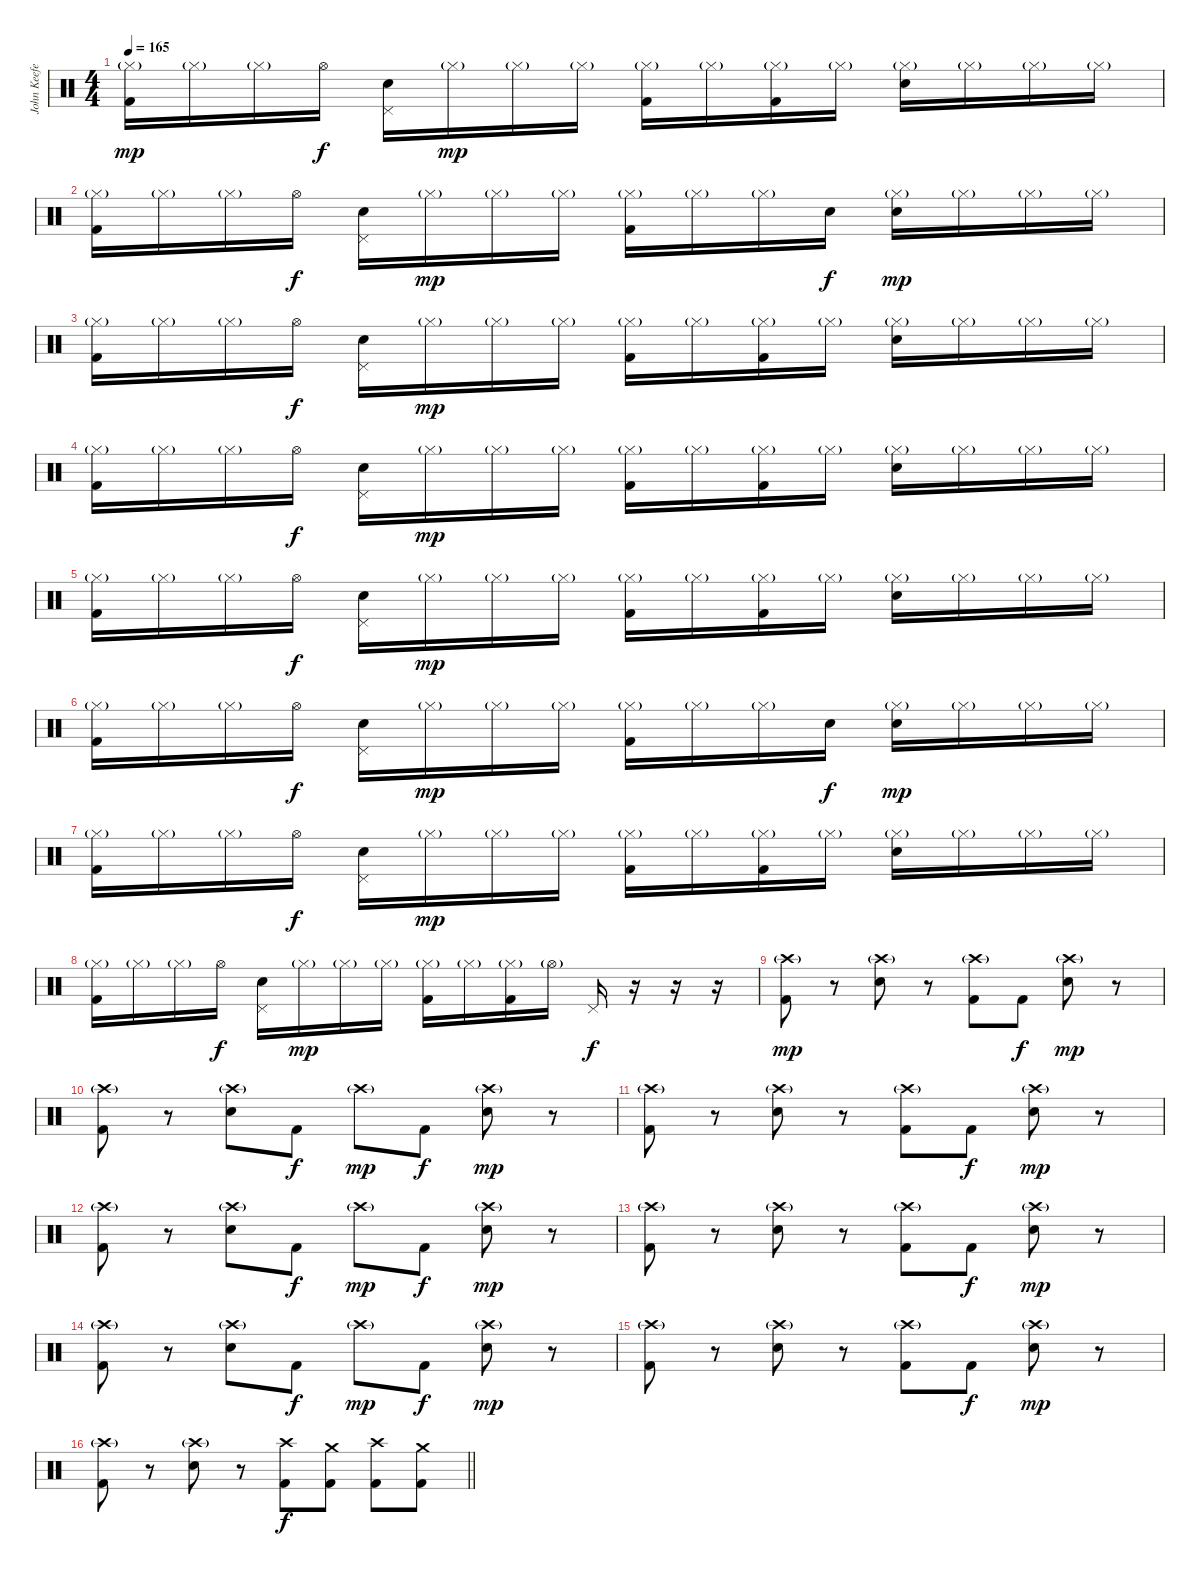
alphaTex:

\track ("John Keefe (Percussion)" "John Keefe") {instrument percussion}
\staff {score}
\articulation defaults
\ts (4 4)
\tempo 165
\clef neutral
\ks c
("Hi-Hat (closed)"{g} "Kick (hit) 2").16{dy mp} "Hi-Hat (closed)"{g}.16 "Hi-Hat (closed)"{g}.16 "Hi-Hat (open)".16{dy f} ("Pedal Hi-Hat (hit)" "Electric Snare (hit)").16 "Hi-Hat (closed)"{g}.16{dy mp} "Hi-Hat (closed)"{g}.16 "Hi-Hat (closed)"{g}.16 ("Hi-Hat (closed)"{g} "Kick (hit) 2").16 "Hi-Hat (closed)"{g}.16 ("Hi-Hat (closed)"{g} "Kick (hit) 2").16 "Hi-Hat (closed)"{g}.16 ("Hi-Hat (closed)"{g} "Electric Snare (hit)").16 "Hi-Hat (closed)"{g}.16 "Hi-Hat (closed)"{g}.16 "Hi-Hat (closed)"{g}.16 |
("Hi-Hat (closed)"{g} "Kick (hit) 2").16 "Hi-Hat (closed)"{g}.16 "Hi-Hat (closed)"{g}.16 "Hi-Hat (open)".16{dy f} ("Pedal Hi-Hat (hit)" "Electric Snare (hit)").16 "Hi-Hat (closed)"{g}.16{dy mp} "Hi-Hat (closed)"{g}.16 "Hi-Hat (closed)"{g}.16 ("Hi-Hat (closed)"{g} "Kick (hit) 2").16 "Hi-Hat (closed)"{g}.16 "Hi-Hat (closed)"{g}.16 "Electric Snare (hit)".16{dy f} ("Hi-Hat (closed)"{g} "Electric Snare (hit)").16{dy mp} "Hi-Hat (closed)"{g}.16 "Hi-Hat (closed)"{g}.16 "Hi-Hat (closed)"{g}.16 |
("Hi-Hat (closed)"{g} "Kick (hit) 2").16 "Hi-Hat (closed)"{g}.16 "Hi-Hat (closed)"{g}.16 "Hi-Hat (open)".16{dy f} ("Pedal Hi-Hat (hit)" "Electric Snare (hit)").16 "Hi-Hat (closed)"{g}.16{dy mp} "Hi-Hat (closed)"{g}.16 "Hi-Hat (closed)"{g}.16 ("Hi-Hat (closed)"{g} "Kick (hit) 2").16 "Hi-Hat (closed)"{g}.16 ("Hi-Hat (closed)"{g} "Kick (hit) 2").16 "Hi-Hat (closed)"{g}.16 ("Hi-Hat (closed)"{g} "Electric Snare (hit)").16 "Hi-Hat (closed)"{g}.16 "Hi-Hat (closed)"{g}.16 "Hi-Hat (closed)"{g}.16 |
("Hi-Hat (closed)"{g} "Kick (hit) 2").16 "Hi-Hat (closed)"{g}.16 "Hi-Hat (closed)"{g}.16 "Hi-Hat (open)".16{dy f} ("Pedal Hi-Hat (hit)" "Electric Snare (hit)").16 "Hi-Hat (closed)"{g}.16{dy mp} "Hi-Hat (closed)"{g}.16 "Hi-Hat (closed)"{g}.16 ("Hi-Hat (closed)"{g} "Kick (hit) 2").16 "Hi-Hat (closed)"{g}.16 ("Hi-Hat (closed)"{g} "Kick (hit) 2").16 "Hi-Hat (closed)"{g}.16 ("Hi-Hat (closed)"{g} "Electric Snare (hit)").16 "Hi-Hat (closed)"{g}.16 "Hi-Hat (closed)"{g}.16 "Hi-Hat (closed)"{g}.16 |
("Hi-Hat (closed)"{g} "Kick (hit) 2").16 "Hi-Hat (closed)"{g}.16 "Hi-Hat (closed)"{g}.16 "Hi-Hat (open)".16{dy f} ("Pedal Hi-Hat (hit)" "Electric Snare (hit)").16 "Hi-Hat (closed)"{g}.16{dy mp} "Hi-Hat (closed)"{g}.16 "Hi-Hat (closed)"{g}.16 ("Hi-Hat (closed)"{g} "Kick (hit) 2").16 "Hi-Hat (closed)"{g}.16 ("Hi-Hat (closed)"{g} "Kick (hit) 2").16 "Hi-Hat (closed)"{g}.16 ("Hi-Hat (closed)"{g} "Electric Snare (hit)").16 "Hi-Hat (closed)"{g}.16 "Hi-Hat (closed)"{g}.16 "Hi-Hat (closed)"{g}.16 |
("Hi-Hat (closed)"{g} "Kick (hit) 2").16 "Hi-Hat (closed)"{g}.16 "Hi-Hat (closed)"{g}.16 "Hi-Hat (open)".16{dy f} ("Pedal Hi-Hat (hit)" "Electric Snare (hit)").16 "Hi-Hat (closed)"{g}.16{dy mp} "Hi-Hat (closed)"{g}.16 "Hi-Hat (closed)"{g}.16 ("Hi-Hat (closed)"{g} "Kick (hit) 2").16 "Hi-Hat (closed)"{g}.16 "Hi-Hat (closed)"{g}.16 "Electric Snare (hit)".16{dy f} ("Hi-Hat (closed)"{g} "Electric Snare (hit)").16{dy mp} "Hi-Hat (closed)"{g}.16 "Hi-Hat (closed)"{g}.16 "Hi-Hat (closed)"{g}.16 |
("Hi-Hat (closed)"{g} "Kick (hit) 2").16 "Hi-Hat (closed)"{g}.16 "Hi-Hat (closed)"{g}.16 "Hi-Hat (open)".16{dy f} ("Pedal Hi-Hat (hit)" "Electric Snare (hit)").16 "Hi-Hat (closed)"{g}.16{dy mp} "Hi-Hat (closed)"{g}.16 "Hi-Hat (closed)"{g}.16 ("Hi-Hat (closed)"{g} "Kick (hit) 2").16 "Hi-Hat (closed)"{g}.16 ("Hi-Hat (closed)"{g} "Kick (hit) 2").16 "Hi-Hat (closed)"{g}.16 ("Hi-Hat (closed)"{g} "Electric Snare (hit)").16 "Hi-Hat (closed)"{g}.16 "Hi-Hat (closed)"{g}.16 "Hi-Hat (closed)"{g}.16 |
("Hi-Hat (closed)"{g} "Kick (hit) 2").16 "Hi-Hat (closed)"{g}.16 "Hi-Hat (closed)"{g}.16 "Hi-Hat (open)".16{dy f} ("Pedal Hi-Hat (hit)" "Electric Snare (hit)").16 "Hi-Hat (closed)"{g}.16{dy mp} "Hi-Hat (closed)"{g}.16 "Hi-Hat (closed)"{g}.16 ("Hi-Hat (closed)"{g} "Kick (hit) 2").16 "Hi-Hat (closed)"{g}.16 ("Hi-Hat (closed)"{g} "Kick (hit) 2").16 "Hi-Hat (open)"{g}.16 "Pedal Hi-Hat (hit)".16{dy f} r.16 r.16 r.16 |
("Crash high (hit)"{g} "Kick (hit) 2").8{dy mp} r.8 ("Crash high (hit)"{g} "Electric Snare (hit)").8 r.8 ("Crash high (hit)"{g} "Kick (hit) 2").8 "Kick (hit) 2".8{dy f} ("Crash high (hit)"{g} "Electric Snare (hit)").8{dy mp} r.8 |
("Crash high (hit)"{g} "Kick (hit) 2").8 r.8 ("Crash high (hit)"{g} "Electric Snare (hit)").8 "Kick (hit) 2".8{dy f} "Crash high (hit)"{g}.8{dy mp} "Kick (hit) 2".8{dy f} ("Crash high (hit)"{g} "Electric Snare (hit)").8{dy mp} r.8 |
("Crash high (hit)"{g} "Kick (hit) 2").8 r.8 ("Crash high (hit)"{g} "Electric Snare (hit)").8 r.8 ("Crash high (hit)"{g} "Kick (hit) 2").8 "Kick (hit) 2".8{dy f} ("Crash high (hit)"{g} "Electric Snare (hit)").8{dy mp} r.8 |
("Crash high (hit)"{g} "Kick (hit) 2").8 r.8 ("Crash high (hit)"{g} "Electric Snare (hit)").8 "Kick (hit) 2".8{dy f} "Crash high (hit)"{g}.8{dy mp} "Kick (hit) 2".8{dy f} ("Crash high (hit)"{g} "Electric Snare (hit)").8{dy mp} r.8 |
("Crash high (hit)"{g} "Kick (hit) 2").8 r.8 ("Crash high (hit)"{g} "Electric Snare (hit)").8 r.8 ("Crash high (hit)"{g} "Kick (hit) 2").8 "Kick (hit) 2".8{dy f} ("Crash high (hit)"{g} "Electric Snare (hit)").8{dy mp} r.8 |
("Crash high (hit)"{g} "Kick (hit) 2").8 r.8 ("Crash high (hit)"{g} "Electric Snare (hit)").8 "Kick (hit) 2".8{dy f} "Crash high (hit)"{g}.8{dy mp} "Kick (hit) 2".8{dy f} ("Crash high (hit)"{g} "Electric Snare (hit)").8{dy mp} r.8 |
("Crash high (hit)"{g} "Kick (hit) 2").8 r.8 ("Crash high (hit)"{g} "Electric Snare (hit)").8 r.8 ("Crash high (hit)"{g} "Kick (hit) 2").8 "Kick (hit) 2".8{dy f} ("Crash high (hit)"{g} "Electric Snare (hit)").8{dy mp} r.8 |
\barLineRight lightlight
("Crash high (hit)"{g} "Kick (hit) 2").8 r.8 ("Crash high (hit)"{g} "Electric Snare (hit)").8 r.8 ("Crash high (hit)" "Kick (hit) 2").8{dy f} ("Crash medium (hit)" "Kick (hit) 2").8 ("Crash high (hit)" "Kick (hit) 2").8 ("Crash medium (hit)" "Kick (hit) 2").8
